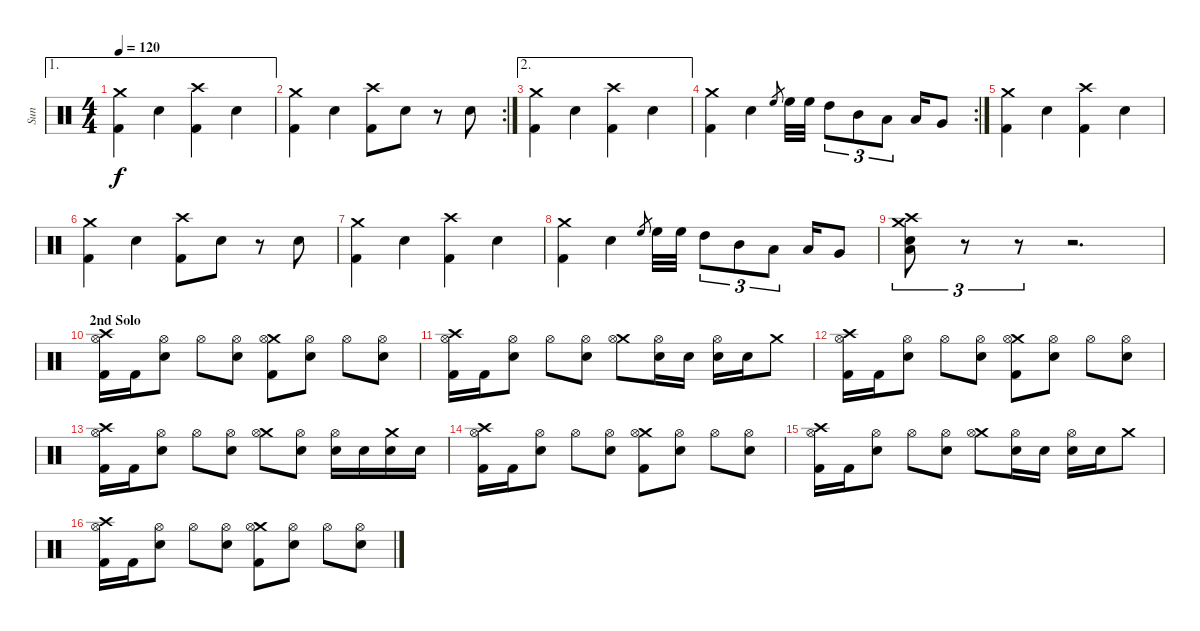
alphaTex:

\track ("Sun" "Sun") {instrument percussion}
\staff {score}
\articulation defaults
\ae 1
\ts (4 4)
\tempo 120
\clef neutral
\ks c
("Crash medium (hit)" "Kick (hit) 2").4{dy f} "Electric Snare (hit)".4 ("Crash high (hit)" "Kick (hit) 2").4 "Electric Snare (hit)".4 |
\rc 2
("Crash medium (hit)" "Kick (hit) 2").4 "Electric Snare (hit)".4 ("Crash high (hit)" "Kick (hit) 2").8 "Electric Snare (hit)".8 r.8 "Electric Snare (hit)".8 |
\ae 2
("Crash medium (hit)" "Kick (hit) 2").4 "Electric Snare (hit)".4 ("Crash high (hit)" "Kick (hit) 2").4 "Electric Snare (hit)".4 |
\rc 2
("Crash medium (hit)" "Kick (hit) 2").4 "Electric Snare (hit)".4 "High Floor Tom (hit)".8{gr} "High Floor Tom (hit)".32 "High Floor Tom (hit)".32 "High Tom (hit)".8{tu (3 2)} "Mid Tom (hit)".8{tu (3 2)} "Low Tom (hit)".8{tu (3 2)} "Low Tom (hit)".16 "Very Low Tom (hit)".8 |
("Crash medium (hit)" "Kick (hit) 2").4 "Electric Snare (hit)".4 ("Crash high (hit)" "Kick (hit) 2").4 "Electric Snare (hit)".4 |
("Crash medium (hit)" "Kick (hit) 2").4 "Electric Snare (hit)".4 ("Crash high (hit)" "Kick (hit) 2").8 "Electric Snare (hit)".8 r.8 "Electric Snare (hit)".8 |
("Crash medium (hit)" "Kick (hit) 2").4 "Electric Snare (hit)".4 ("Crash high (hit)" "Kick (hit) 2").4 "Electric Snare (hit)".4 |
("Crash medium (hit)" "Kick (hit) 2").4 "Electric Snare (hit)".4 "High Floor Tom (hit)".8{gr} "High Floor Tom (hit)".32 "High Floor Tom (hit)".32 "High Tom (hit)".8{tu (3 2)} "Mid Tom (hit)".8{tu (3 2)} "Low Tom (hit)".8{tu (3 2)} "Low Tom (hit)".16 "Very Low Tom (hit)".8 |
("Crash medium (hit)" "Crash high (hit)" "Electric Snare (hit)" "Low Tom (hit)").8{tu (3 2)} r.8{tu (3 2)} r.8{tu (3 2)} r.2{d} |
\section ("" "2nd Solo")
("Crash high (hit)" "Hi-Hat (open)" "Kick (hit) 2").16 "Kick (hit) 2".16 ("Hi-Hat (open)" "Electric Snare (hit)").8 "Hi-Hat (open)".8 ("Hi-Hat (open)" "Electric Snare (hit)").8 ("Crash medium (hit)" "Hi-Hat (open)" "Kick (hit) 2").8 ("Hi-Hat (open)" "Electric Snare (hit)").8 "Hi-Hat (open)".8 ("Hi-Hat (open)" "Electric Snare (hit)").8 |
("Crash high (hit)" "Hi-Hat (open)" "Kick (hit) 2").16 "Kick (hit) 2".16 ("Hi-Hat (open)" "Electric Snare (hit)").8 "Hi-Hat (open)".8 ("Hi-Hat (open)" "Electric Snare (hit)").8 ("Crash medium (hit)" "Hi-Hat (open)").8 ("Hi-Hat (open)" "Electric Snare (hit)").16 "Electric Snare (hit)".16 ("Hi-Hat (open)" "Electric Snare (hit)").16 "Electric Snare (hit)".16 "Crash medium (hit)".8 |
("Crash high (hit)" "Hi-Hat (open)" "Kick (hit) 2").16 "Kick (hit) 2".16 ("Hi-Hat (open)" "Electric Snare (hit)").8 "Hi-Hat (open)".8 ("Hi-Hat (open)" "Electric Snare (hit)").8 ("Crash medium (hit)" "Hi-Hat (open)" "Kick (hit) 2").8 ("Hi-Hat (open)" "Electric Snare (hit)").8 "Hi-Hat (open)".8 ("Hi-Hat (open)" "Electric Snare (hit)").8 |
("Crash high (hit)" "Hi-Hat (open)" "Kick (hit) 2").16 "Kick (hit) 2".16 ("Hi-Hat (open)" "Electric Snare (hit)").8 "Hi-Hat (open)".8 ("Hi-Hat (open)" "Electric Snare (hit)").8 ("Crash medium (hit)" "Hi-Hat (open)").8 ("Hi-Hat (open)" "Electric Snare (hit)").8 ("Hi-Hat (open)" "Electric Snare (hit)").16 "Electric Snare (hit)".16 ("Crash medium (hit)" "Electric Snare (hit)").16 "Electric Snare (hit)".16 |
("Crash high (hit)" "Hi-Hat (open)" "Kick (hit) 2").16 "Kick (hit) 2".16 ("Hi-Hat (open)" "Electric Snare (hit)").8 "Hi-Hat (open)".8 ("Hi-Hat (open)" "Electric Snare (hit)").8 ("Crash medium (hit)" "Hi-Hat (open)" "Kick (hit) 2").8 ("Hi-Hat (open)" "Electric Snare (hit)").8 "Hi-Hat (open)".8 ("Hi-Hat (open)" "Electric Snare (hit)").8 |
("Crash high (hit)" "Hi-Hat (open)" "Kick (hit) 2").16 "Kick (hit) 2".16 ("Hi-Hat (open)" "Electric Snare (hit)").8 "Hi-Hat (open)".8 ("Hi-Hat (open)" "Electric Snare (hit)").8 ("Crash medium (hit)" "Hi-Hat (open)").8 ("Hi-Hat (open)" "Electric Snare (hit)").16 "Electric Snare (hit)".16 ("Hi-Hat (open)" "Electric Snare (hit)").16 "Electric Snare (hit)".16 "Crash medium (hit)".8 |
("Crash high (hit)" "Hi-Hat (open)" "Kick (hit) 2").16 "Kick (hit) 2".16 ("Hi-Hat (open)" "Electric Snare (hit)").8 "Hi-Hat (open)".8 ("Hi-Hat (open)" "Electric Snare (hit)").8 ("Crash medium (hit)" "Hi-Hat (open)" "Kick (hit) 2").8 ("Hi-Hat (open)" "Electric Snare (hit)").8 "Hi-Hat (open)".8 ("Hi-Hat (open)" "Electric Snare (hit)").8
